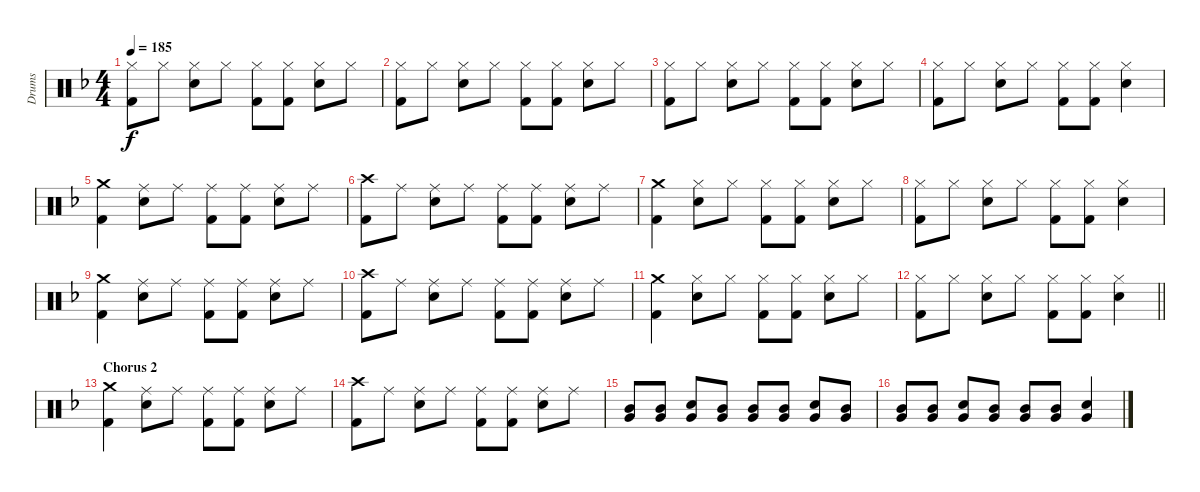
\track ("Drums" "Drums") {instrument percussion}
\staff {score}
\articulation defaults
\ts (4 4)
\tempo 185
\clef neutral
\ks f
("Hi-Hat (closed)" "Kick (hit) 2").8{dy f} "Hi-Hat (closed)".8 ("Hi-Hat (closed)" "Snare (hit) 2").8 "Hi-Hat (closed)".8 ("Hi-Hat (closed)" "Kick (hit) 2").8 ("Hi-Hat (closed)" "Kick (hit) 2").8 ("Hi-Hat (closed)" "Snare (hit) 2").8 "Hi-Hat (closed)".8 |
("Hi-Hat (closed)" "Kick (hit) 2").8 "Hi-Hat (closed)".8 ("Hi-Hat (closed)" "Snare (hit) 2").8 "Hi-Hat (closed)".8 ("Hi-Hat (closed)" "Kick (hit) 2").8 ("Hi-Hat (closed)" "Kick (hit) 2").8 ("Hi-Hat (closed)" "Snare (hit) 2").8 "Hi-Hat (closed)".8 |
("Hi-Hat (closed)" "Kick (hit) 2").8 "Hi-Hat (closed)".8 ("Hi-Hat (closed)" "Snare (hit) 2").8 "Hi-Hat (closed)".8 ("Hi-Hat (closed)" "Kick (hit) 2").8 ("Hi-Hat (closed)" "Kick (hit) 2").8 ("Hi-Hat (closed)" "Snare (hit) 2").8 "Hi-Hat (closed)".8 |
("Hi-Hat (closed)" "Kick (hit) 2").8 "Hi-Hat (closed)".8 ("Hi-Hat (closed)" "Snare (hit) 2").8 "Hi-Hat (closed)".8 ("Hi-Hat (closed)" "Kick (hit) 2").8 ("Hi-Hat (closed)" "Kick (hit) 2").8 ("Hi-Hat (closed)" "Snare (hit) 2").4 |
("Kick (hit) 2" "Crash medium (hit)").4 ("Ride (middle)" "Snare (hit) 2").8 "Ride (middle)".8 ("Ride (middle)" "Kick (hit) 2").8 ("Ride (middle)" "Kick (hit) 2").8 ("Ride (middle)" "Snare (hit) 2").8 "Ride (middle)".8 |
("Kick (hit) 2" "Crash high (hit)").8 "Ride (middle)".8 ("Ride (middle)" "Snare (hit) 2").8 "Ride (middle)".8 ("Ride (middle)" "Kick (hit) 2").8 ("Ride (middle)" "Kick (hit) 2").8 ("Ride (middle)" "Snare (hit) 2").8 "Ride (middle)".8 |
("Kick (hit) 2" "Crash medium (hit)").4 ("Hi-Hat (closed)" "Snare (hit) 2").8 "Hi-Hat (closed)".8 ("Hi-Hat (closed)" "Kick (hit) 2").8 ("Hi-Hat (closed)" "Kick (hit) 2").8 ("Hi-Hat (closed)" "Snare (hit) 2").8 "Hi-Hat (closed)".8 |
("Kick (hit) 2" "Hi-Hat (closed)").8 "Hi-Hat (closed)".8 ("Hi-Hat (closed)" "Snare (hit) 2").8 "Hi-Hat (closed)".8 ("Hi-Hat (closed)" "Kick (hit) 2").8 ("Hi-Hat (closed)" "Kick (hit) 2").8 ("Hi-Hat (closed)" "Snare (hit) 2").4 |
("Kick (hit) 2" "Crash medium (hit)").4 ("Ride (middle)" "Snare (hit) 2").8 "Ride (middle)".8 ("Ride (middle)" "Kick (hit) 2").8 ("Ride (middle)" "Kick (hit) 2").8 ("Ride (middle)" "Snare (hit) 2").8 "Ride (middle)".8 |
("Kick (hit) 2" "Crash high (hit)").8 "Ride (middle)".8 ("Ride (middle)" "Snare (hit) 2").8 "Ride (middle)".8 ("Ride (middle)" "Kick (hit) 2").8 ("Ride (middle)" "Kick (hit) 2").8 ("Ride (middle)" "Snare (hit) 2").8 "Ride (middle)".8 |
("Kick (hit) 2" "Crash medium (hit)").4 ("Hi-Hat (closed)" "Snare (hit) 2").8 "Hi-Hat (closed)".8 ("Hi-Hat (closed)" "Kick (hit) 2").8 ("Hi-Hat (closed)" "Kick (hit) 2").8 ("Hi-Hat (closed)" "Snare (hit) 2").8 "Hi-Hat (closed)".8 |
\barLineRight lightlight
("Kick (hit) 2" "Hi-Hat (closed)").8 "Hi-Hat (closed)".8 ("Hi-Hat (closed)" "Snare (hit) 2").8 "Hi-Hat (closed)".8 ("Hi-Hat (closed)" "Kick (hit) 2").8 ("Hi-Hat (closed)" "Kick (hit) 2").8 ("Hi-Hat (closed)" "Snare (hit) 2").4 |
\section ("" "Chorus 2")
("Crash medium (hit)" "Kick (hit) 2").4 ("Ride (middle)" "Snare (hit) 2").8 "Ride (middle)".8 ("Ride (middle)" "Kick (hit) 2").8 ("Ride (middle)" "Kick (hit) 2").8 ("Ride (middle)" "Snare (hit) 2").8 "Ride (middle)".8 |
("Crash high (hit)" "Kick (hit) 2").8 "Ride (middle)".8 ("Ride (middle)" "Snare (hit) 2").8 "Ride (middle)".8 ("Ride (middle)" "Kick (hit) 2").8 ("Ride (middle)" "Kick (hit) 2").8 ("Ride (middle)" "Snare (hit) 2").8 "Ride (middle)".8 |
("Very Low Tom (hit)" "Mid Tom (hit)").8 ("Very Low Tom (hit)" "Mid Tom (hit)").8 ("Very Low Tom (hit)" "Snare (hit) 2").8 ("Very Low Tom (hit)" "Mid Tom (hit)").8 ("Very Low Tom (hit)" "Mid Tom (hit)").8 ("Very Low Tom (hit)" "Mid Tom (hit)").8 ("Very Low Tom (hit)" "Snare (hit) 2").8 ("Very Low Tom (hit)" "Mid Tom (hit)").8 |
("Very Low Tom (hit)" "Mid Tom (hit)").8 ("Very Low Tom (hit)" "Mid Tom (hit)").8 ("Very Low Tom (hit)" "Snare (hit) 2").8 ("Very Low Tom (hit)" "Mid Tom (hit)").8 ("Very Low Tom (hit)" "Mid Tom (hit)").8 ("Very Low Tom (hit)" "Mid Tom (hit)").8 ("Very Low Tom (hit)" "Snare (hit) 2").4
